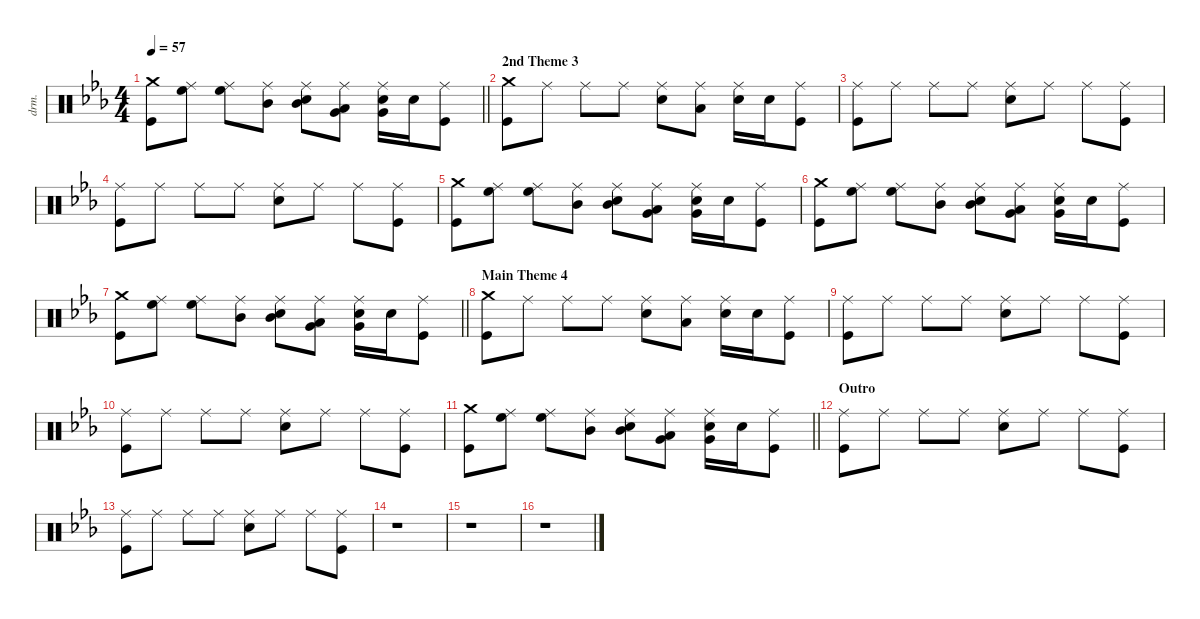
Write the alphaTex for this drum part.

\defaultSystemsLayout 4
\hideDynamics
\bracketExtendMode groupsimilarinstruments
\otherSystemsTrackNameOrientation horizontal
\track ("Percussion" "drm.") {defaultSystemsLayout 4 instrument percussion}
\staff {score}
\articulation defaults
\ts (4 4)
\tempo 57
\clef neutral
\barLineRight lightlight
\ks cminor
("Crash medium (hit)"{acc forcenatural} "Kick (hit)"{acc forcenatural}).8{dy f beam Down} ("High Floor Tom (hit)"{acc forcenatural} "Ride (middle)"{acc forcenatural}).8{beam Down} ("High Floor Tom (hit)"{acc forcenatural} "Ride (middle)"{acc forcenatural}).8{beam Down} ("Mid Tom (hit)"{acc forcenatural} "Ride (middle)"{acc forcenatural}).8{beam Down} ("Mid Tom (hit)"{acc forcenatural} "Snare (hit) 2"{acc forcenatural} "Ride (middle)"{acc forcenatural}).8{beam Down} ("Very Low Tom (hit)"{acc forcenatural} "Low Floor Tom (hit)"{acc forcenatural} "Ride (middle)"{acc forcenatural}).8{beam Down} ("Very Low Tom (hit)"{acc forcenatural} "Snare (hit) 2"{acc forcenatural} "Ride (middle)"{acc forcenatural}).16{beam Down} "Snare (hit) 2"{acc forcenatural}.16{beam Down} ("Kick (hit)"{acc forcenatural} "Ride (middle)"{acc forcenatural}).8{beam Down} |
\section ("" "2nd Theme 3")
("Crash medium (hit)"{acc forcenatural} "Kick (hit)"{acc forcenatural}).8{beam Down} "Ride (middle)"{acc forcenatural}.8{beam Down} "Ride (middle)"{acc forcenatural}.8{beam Down} "Ride (middle)"{acc forcenatural}.8{beam Down} ("Snare (hit) 2"{acc forcenatural} "Ride (middle)"{acc forcenatural}).8{beam Down} ("Low Floor Tom (hit)"{acc forcenatural} "Ride (middle)"{acc forcenatural}).8{beam Down} ("Snare (hit) 2"{acc forcenatural} "Ride (middle)"{acc forcenatural}).16{beam Down} "Snare (hit) 2"{acc forcenatural}.16{beam Down} ("Kick (hit)"{acc forcenatural} "Ride (middle)"{acc forcenatural}).8{beam Down} |
("Ride (middle)"{acc forcenatural} "Kick (hit)"{acc forcenatural}).8{beam Down} "Ride (middle)"{acc forcenatural}.8{beam Down} "Ride (middle)"{acc forcenatural}.8{beam Down} "Ride (middle)"{acc forcenatural}.8{beam Down} ("Snare (hit) 2"{acc forcenatural} "Ride (middle)"{acc forcenatural}).8{beam Down} "Ride (middle)"{acc forcenatural}.8{beam Down} "Ride (middle)"{acc forcenatural}.8{beam Down} ("Kick (hit)"{acc forcenatural} "Ride (middle)"{acc forcenatural}).8{beam Down} |
("Ride (middle)"{acc forcenatural} "Kick (hit)"{acc forcenatural}).8{beam Down} "Ride (middle)"{acc forcenatural}.8{beam Down} "Ride (middle)"{acc forcenatural}.8{beam Down} "Ride (middle)"{acc forcenatural}.8{beam Down} ("Snare (hit) 2"{acc forcenatural} "Ride (middle)"{acc forcenatural}).8{beam Down} "Ride (middle)"{acc forcenatural}.8{beam Down} "Ride (middle)"{acc forcenatural}.8{beam Down} ("Kick (hit)"{acc forcenatural} "Ride (middle)"{acc forcenatural}).8{beam Down} |
("Crash medium (hit)"{acc forcenatural} "Kick (hit)"{acc forcenatural}).8{beam Down} ("High Floor Tom (hit)"{acc forcenatural} "Ride (middle)"{acc forcenatural}).8{beam Down} ("High Floor Tom (hit)"{acc forcenatural} "Ride (middle)"{acc forcenatural}).8{beam Down} ("Mid Tom (hit)"{acc forcenatural} "Ride (middle)"{acc forcenatural}).8{beam Down} ("Mid Tom (hit)"{acc forcenatural} "Snare (hit) 2"{acc forcenatural} "Ride (middle)"{acc forcenatural}).8{beam Down} ("Very Low Tom (hit)"{acc forcenatural} "Low Floor Tom (hit)"{acc forcenatural} "Ride (middle)"{acc forcenatural}).8{beam Down} ("Very Low Tom (hit)"{acc forcenatural} "Snare (hit) 2"{acc forcenatural} "Ride (middle)"{acc forcenatural}).16{beam Down} "Snare (hit) 2"{acc forcenatural}.16{beam Down} ("Kick (hit)"{acc forcenatural} "Ride (middle)"{acc forcenatural}).8{beam Down} |
("Crash medium (hit)"{acc forcenatural} "Kick (hit)"{acc forcenatural}).8{beam Down} ("High Floor Tom (hit)"{acc forcenatural} "Ride (middle)"{acc forcenatural}).8{beam Down} ("High Floor Tom (hit)"{acc forcenatural} "Ride (middle)"{acc forcenatural}).8{beam Down} ("Mid Tom (hit)"{acc forcenatural} "Ride (middle)"{acc forcenatural}).8{beam Down} ("Mid Tom (hit)"{acc forcenatural} "Snare (hit) 2"{acc forcenatural} "Ride (middle)"{acc forcenatural}).8{beam Down} ("Very Low Tom (hit)"{acc forcenatural} "Low Floor Tom (hit)"{acc forcenatural} "Ride (middle)"{acc forcenatural}).8{beam Down} ("Very Low Tom (hit)"{acc forcenatural} "Snare (hit) 2"{acc forcenatural} "Ride (middle)"{acc forcenatural}).16{beam Down} "Snare (hit) 2"{acc forcenatural}.16{beam Down} ("Kick (hit)"{acc forcenatural} "Ride (middle)"{acc forcenatural}).8{beam Down} |
\barLineRight lightlight
("Crash medium (hit)"{acc forcenatural} "Kick (hit)"{acc forcenatural}).8{beam Down} ("High Floor Tom (hit)"{acc forcenatural} "Ride (middle)"{acc forcenatural}).8{beam Down} ("High Floor Tom (hit)"{acc forcenatural} "Ride (middle)"{acc forcenatural}).8{beam Down} ("Mid Tom (hit)"{acc forcenatural} "Ride (middle)"{acc forcenatural}).8{beam Down} ("Mid Tom (hit)"{acc forcenatural} "Snare (hit) 2"{acc forcenatural} "Ride (middle)"{acc forcenatural}).8{beam Down} ("Very Low Tom (hit)"{acc forcenatural} "Low Floor Tom (hit)"{acc forcenatural} "Ride (middle)"{acc forcenatural}).8{beam Down} ("Very Low Tom (hit)"{acc forcenatural} "Snare (hit) 2"{acc forcenatural} "Ride (middle)"{acc forcenatural}).16{beam Down} "Snare (hit) 2"{acc forcenatural}.16{beam Down} ("Kick (hit)"{acc forcenatural} "Ride (middle)"{acc forcenatural}).8{beam Down} |
\section ("" "Main Theme 4")
("Crash medium (hit)"{acc forcenatural} "Kick (hit)"{acc forcenatural}).8{beam Down} "Ride (middle)"{acc forcenatural}.8{beam Down} "Ride (middle)"{acc forcenatural}.8{beam Down} "Ride (middle)"{acc forcenatural}.8{beam Down} ("Snare (hit) 2"{acc forcenatural} "Ride (middle)"{acc forcenatural}).8{beam Down} ("Low Floor Tom (hit)"{acc forcenatural} "Ride (middle)"{acc forcenatural}).8{beam Down} ("Snare (hit) 2"{acc forcenatural} "Ride (middle)"{acc forcenatural}).16{beam Down} "Snare (hit) 2"{acc forcenatural}.16{beam Down} ("Kick (hit)"{acc forcenatural} "Ride (middle)"{acc forcenatural}).8{beam Down} |
("Ride (middle)"{acc forcenatural} "Kick (hit)"{acc forcenatural}).8{beam Down} "Ride (middle)"{acc forcenatural}.8{beam Down} "Ride (middle)"{acc forcenatural}.8{beam Down} "Ride (middle)"{acc forcenatural}.8{beam Down} ("Snare (hit) 2"{acc forcenatural} "Ride (middle)"{acc forcenatural}).8{beam Down} "Ride (middle)"{acc forcenatural}.8{beam Down} "Ride (middle)"{acc forcenatural}.8{beam Down} ("Kick (hit)"{acc forcenatural} "Ride (middle)"{acc forcenatural}).8{beam Down} |
("Ride (middle)"{acc forcenatural} "Kick (hit)"{acc forcenatural}).8{beam Down} "Ride (middle)"{acc forcenatural}.8{beam Down} "Ride (middle)"{acc forcenatural}.8{beam Down} "Ride (middle)"{acc forcenatural}.8{beam Down} ("Snare (hit) 2"{acc forcenatural} "Ride (middle)"{acc forcenatural}).8{beam Down} "Ride (middle)"{acc forcenatural}.8{beam Down} "Ride (middle)"{acc forcenatural}.8{beam Down} ("Kick (hit)"{acc forcenatural} "Ride (middle)"{acc forcenatural}).8{beam Down} |
\barLineRight lightlight
("Crash medium (hit)"{acc forcenatural} "Kick (hit)"{acc forcenatural}).8{beam Down} ("High Floor Tom (hit)"{acc forcenatural} "Ride (middle)"{acc forcenatural}).8{beam Down} ("High Floor Tom (hit)"{acc forcenatural} "Ride (middle)"{acc forcenatural}).8{beam Down} ("Mid Tom (hit)"{acc forcenatural} "Ride (middle)"{acc forcenatural}).8{beam Down} ("Mid Tom (hit)"{acc forcenatural} "Snare (hit) 2"{acc forcenatural} "Ride (middle)"{acc forcenatural}).8{beam Down} ("Very Low Tom (hit)"{acc forcenatural} "Low Floor Tom (hit)"{acc forcenatural} "Ride (middle)"{acc forcenatural}).8{beam Down} ("Very Low Tom (hit)"{acc forcenatural} "Snare (hit) 2"{acc forcenatural} "Ride (middle)"{acc forcenatural}).16{beam Down} "Snare (hit) 2"{acc forcenatural}.16{beam Down} ("Kick (hit)"{acc forcenatural} "Ride (middle)"{acc forcenatural}).8{beam Down} |
\section ("" "Outro")
("Ride (middle)"{acc forcenatural} "Kick (hit)"{acc forcenatural}).8{beam Down} "Ride (middle)"{acc forcenatural}.8{beam Down} "Ride (middle)"{acc forcenatural}.8{beam Down} "Ride (middle)"{acc forcenatural}.8{beam Down} ("Snare (hit) 2"{acc forcenatural} "Ride (middle)"{acc forcenatural}).8{beam Down} "Ride (middle)"{acc forcenatural}.8{beam Down} "Ride (middle)"{acc forcenatural}.8{beam Down} ("Kick (hit)"{acc forcenatural} "Ride (middle)"{acc forcenatural}).8{beam Down} |
("Ride (middle)"{acc forcenatural} "Kick (hit)"{acc forcenatural}).8{beam Down} "Ride (middle)"{acc forcenatural}.8{beam Down} "Ride (middle)"{acc forcenatural}.8{beam Down} "Ride (middle)"{acc forcenatural}.8{beam Down} ("Snare (hit) 2"{acc forcenatural} "Ride (middle)"{acc forcenatural}).8{beam Down} "Ride (middle)"{acc forcenatural}.8{beam Down} "Ride (middle)"{acc forcenatural}.8{beam Down} ("Kick (hit)"{acc forcenatural} "Ride (middle)"{acc forcenatural}).8{beam Down} |
r.1{beam Down} |
r.1{beam Down} |
r.1{beam Down}
